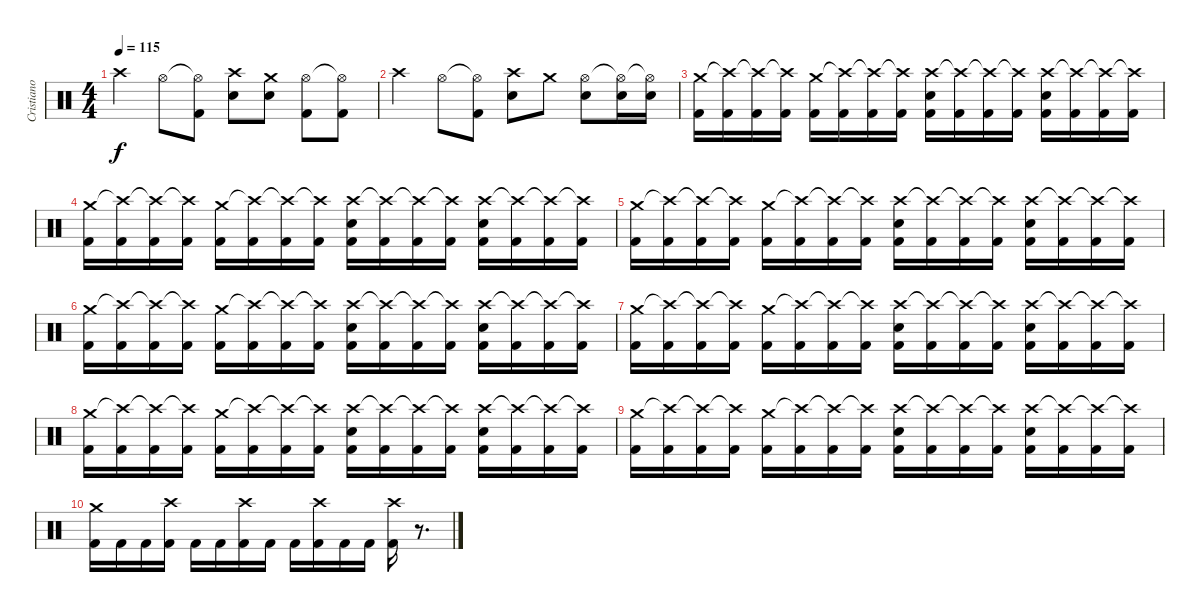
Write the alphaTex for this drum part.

\track ("Cristiano Mozzati" "Cristiano ") {instrument percussion}
\staff {score}
\articulation defaults
\ts (4 4)
\tempo 115
\clef neutral
\ks c "Crash high (hit)".4{dy f} "Hi-Hat (open)".8
("Hi-Hat (open)"{t} "Kick (hit) 2").8 ("Crash high (hit)" "Electric Snare (hit)").8 ("Crash medium (hit)" "Electric Snare (hit)").8 ("Hi-Hat (open)" "Kick (hit) 2").8 ("Hi-Hat (open)"{t} "Kick (hit) 2").8 |
"Crash high (hit)".4 "Hi-Hat (open)".8 ("Hi-Hat (open)"{t} "Kick (hit) 2").8 ("Crash high (hit)" "Electric Snare (hit)").8 "Crash medium (hit)".8 ("Hi-Hat (open)" "Electric Snare (hit)").8 ("Hi-Hat (open)"{t} "Electric Snare (hit)").16 ("Hi-Hat (open)"{t} "Electric Snare (hit)").16 |
("Crash medium (hit)" "Kick (hit) 2").16 ("Crash high (hit)"{t} "Kick (hit) 2").16 ("Crash high (hit)"{t} "Kick (hit) 2").16 ("Crash high (hit)"{t} "Kick (hit) 2").16 ("Crash medium (hit)" "Kick (hit) 2").16 ("Crash high (hit)"{t} "Kick (hit) 2").16 ("Crash high (hit)"{t} "Kick (hit) 2").16 ("Crash high (hit)"{t} "Kick (hit) 2").16 ("Crash high (hit)" "Electric Snare (hit)" "Kick (hit) 2").16 ("Crash high (hit)"{t} "Kick (hit) 2").16 ("Crash high (hit)"{t} "Kick (hit) 2").16 ("Crash high (hit)"{t} "Kick (hit) 2").16 ("Crash high (hit)" "Electric Snare (hit)" "Kick (hit) 2").16 ("Crash high (hit)"{t} "Kick (hit) 2").16 ("Crash high (hit)"{t} "Kick (hit) 2").16 ("Crash high (hit)"{t} "Kick (hit) 2").16 |
("Crash medium (hit)" "Kick (hit) 2").16 ("Crash high (hit)"{t} "Kick (hit) 2").16 ("Crash high (hit)"{t} "Kick (hit) 2").16 ("Crash high (hit)"{t} "Kick (hit) 2").16 ("Crash medium (hit)" "Kick (hit) 2").16 ("Crash high (hit)"{t} "Kick (hit) 2").16 ("Crash high (hit)"{t} "Kick (hit) 2").16 ("Crash high (hit)"{t} "Kick (hit) 2").16 ("Crash high (hit)" "Electric Snare (hit)" "Kick (hit) 2").16 ("Crash high (hit)"{t} "Kick (hit) 2").16 ("Crash high (hit)"{t} "Kick (hit) 2").16 ("Crash high (hit)"{t} "Kick (hit) 2").16 ("Crash high (hit)" "Electric Snare (hit)" "Kick (hit) 2").16 ("Crash high (hit)"{t} "Kick (hit) 2").16 ("Crash high (hit)"{t} "Kick (hit) 2").16 ("Crash high (hit)"{t} "Kick (hit) 2").16 |
("Crash medium (hit)" "Kick (hit) 2").16 ("Crash high (hit)"{t} "Kick (hit) 2").16 ("Crash high (hit)"{t} "Kick (hit) 2").16 ("Crash high (hit)"{t} "Kick (hit) 2").16 ("Crash medium (hit)" "Kick (hit) 2").16 ("Crash high (hit)"{t} "Kick (hit) 2").16 ("Crash high (hit)"{t} "Kick (hit) 2").16 ("Crash high (hit)"{t} "Kick (hit) 2").16 ("Crash high (hit)" "Electric Snare (hit)" "Kick (hit) 2").16 ("Crash high (hit)"{t} "Kick (hit) 2").16 ("Crash high (hit)"{t} "Kick (hit) 2").16 ("Crash high (hit)"{t} "Kick (hit) 2").16 ("Crash high (hit)" "Electric Snare (hit)" "Kick (hit) 2").16 ("Crash high (hit)"{t} "Kick (hit) 2").16 ("Crash high (hit)"{t} "Kick (hit) 2").16 ("Crash high (hit)"{t} "Kick (hit) 2").16 |
("Crash medium (hit)" "Kick (hit) 2").16 ("Crash high (hit)"{t} "Kick (hit) 2").16 ("Crash high (hit)"{t} "Kick (hit) 2").16 ("Crash high (hit)"{t} "Kick (hit) 2").16 ("Crash medium (hit)" "Kick (hit) 2").16 ("Crash high (hit)"{t} "Kick (hit) 2").16 ("Crash high (hit)"{t} "Kick (hit) 2").16 ("Crash high (hit)"{t} "Kick (hit) 2").16 ("Crash high (hit)" "Electric Snare (hit)" "Kick (hit) 2").16 ("Crash high (hit)"{t} "Kick (hit) 2").16 ("Crash high (hit)"{t} "Kick (hit) 2").16 ("Crash high (hit)"{t} "Kick (hit) 2").16 ("Crash high (hit)" "Electric Snare (hit)" "Kick (hit) 2").16 ("Crash high (hit)"{t} "Kick (hit) 2").16 ("Crash high (hit)"{t} "Kick (hit) 2").16 ("Crash high (hit)"{t} "Kick (hit) 2").16 |
("Crash medium (hit)" "Kick (hit) 2").16 ("Crash high (hit)"{t} "Kick (hit) 2").16 ("Crash high (hit)"{t} "Kick (hit) 2").16 ("Crash high (hit)"{t} "Kick (hit) 2").16 ("Crash medium (hit)" "Kick (hit) 2").16 ("Crash high (hit)"{t} "Kick (hit) 2").16 ("Crash high (hit)"{t} "Kick (hit) 2").16 ("Crash high (hit)"{t} "Kick (hit) 2").16 ("Crash high (hit)" "Electric Snare (hit)" "Kick (hit) 2").16 ("Crash high (hit)"{t} "Kick (hit) 2").16 ("Crash high (hit)"{t} "Kick (hit) 2").16 ("Crash high (hit)"{t} "Kick (hit) 2").16 ("Crash high (hit)" "Electric Snare (hit)" "Kick (hit) 2").16 ("Crash high (hit)"{t} "Kick (hit) 2").16 ("Crash high (hit)"{t} "Kick (hit) 2").16 ("Crash high (hit)"{t} "Kick (hit) 2").16 |
("Crash medium (hit)" "Kick (hit) 2").16 ("Crash high (hit)"{t} "Kick (hit) 2").16 ("Crash high (hit)"{t} "Kick (hit) 2").16 ("Crash high (hit)"{t} "Kick (hit) 2").16 ("Crash medium (hit)" "Kick (hit) 2").16 ("Crash high (hit)"{t} "Kick (hit) 2").16 ("Crash high (hit)"{t} "Kick (hit) 2").16 ("Crash high (hit)"{t} "Kick (hit) 2").16 ("Crash high (hit)" "Electric Snare (hit)" "Kick (hit) 2").16 ("Crash high (hit)"{t} "Kick (hit) 2").16 ("Crash high (hit)"{t} "Kick (hit) 2").16 ("Crash high (hit)"{t} "Kick (hit) 2").16 ("Crash high (hit)" "Electric Snare (hit)" "Kick (hit) 2").16 ("Crash high (hit)"{t} "Kick (hit) 2").16 ("Crash high (hit)"{t} "Kick (hit) 2").16 ("Crash high (hit)"{t} "Kick (hit) 2").16 |
("Crash medium (hit)" "Kick (hit) 2").16 ("Crash high (hit)"{t} "Kick (hit) 2").16 ("Crash high (hit)"{t} "Kick (hit) 2").16 ("Crash high (hit)"{t} "Kick (hit) 2").16 ("Crash medium (hit)" "Kick (hit) 2").16 ("Crash high (hit)"{t} "Kick (hit) 2").16 ("Crash high (hit)"{t} "Kick (hit) 2").16 ("Crash high (hit)"{t} "Kick (hit) 2").16 ("Crash high (hit)" "Electric Snare (hit)" "Kick (hit) 2").16 ("Crash high (hit)"{t} "Kick (hit) 2").16 ("Crash high (hit)"{t} "Kick (hit) 2").16 ("Crash high (hit)"{t} "Kick (hit) 2").16 ("Crash high (hit)" "Electric Snare (hit)" "Kick (hit) 2").16 ("Crash high (hit)"{t} "Kick (hit) 2").16 ("Crash high (hit)"{t} "Kick (hit) 2").16 ("Crash high (hit)"{t} "Kick (hit) 2").16 |
("Crash medium (hit)" "Kick (hit) 2").16 "Kick (hit) 2".16 "Kick (hit) 2".16 ("Crash high (hit)" "Kick (hit) 2").16 "Kick (hit) 2".16 "Kick (hit) 2".16 ("Crash high (hit)" "Kick (hit) 2").16 "Kick (hit) 2".16 "Kick (hit) 2".16 ("Crash high (hit)" "Kick (hit) 2").16 "Kick (hit) 2".16 "Kick (hit) 2".16 ("Crash high (hit)" "Kick (hit) 2").16 r.8{d}
